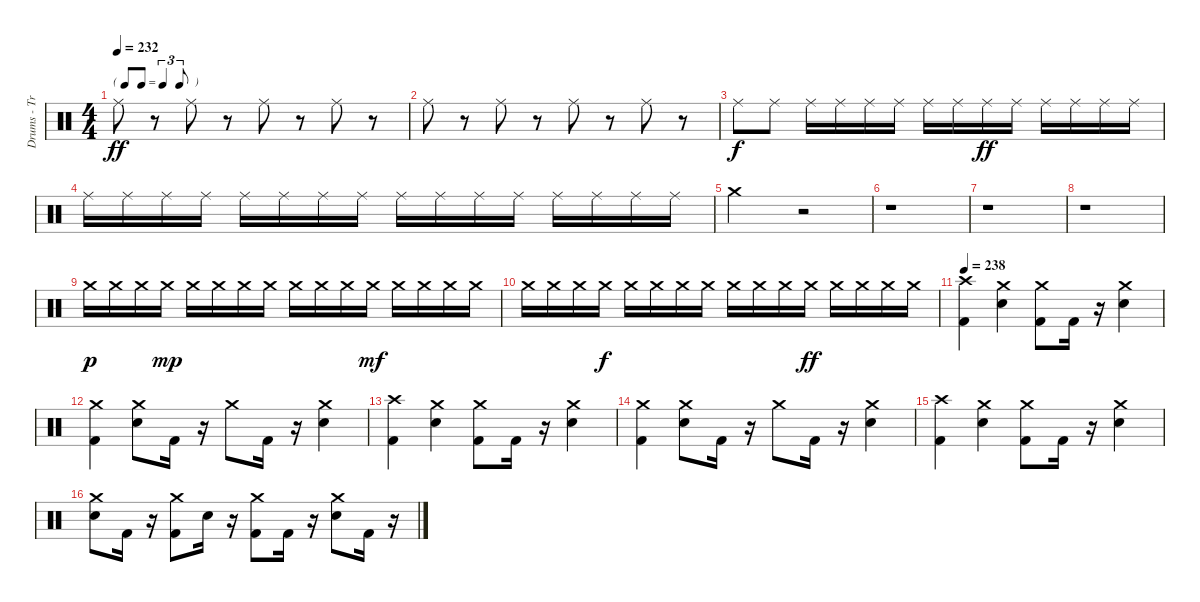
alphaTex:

\track ("Drums - Travis" "Drums - Tr") {instrument percussion}
\staff {score}
\articulation defaults
\ts (4 4)
\tf triplet8th
\tempo 232
\clef neutral
\ks c "Ride (middle)".8{dy ff}
r.8 "Ride (middle)".8 r.8 "Ride (middle)".8 r.8 "Ride (middle)".8 r.8 |
"Ride (middle)".8 r.8 "Ride (middle)".8 r.8 "Ride (middle)".8 r.8 "Ride (middle)".8 r.8 |
"Ride (middle)".8{dy f} "Ride (middle)".8 "Ride (middle)".16 "Ride (middle)".16 "Ride (middle)".16 "Ride (middle)".16 "Ride (middle)".16 "Ride (middle)".16 "Ride (middle)".16{dy ff} "Ride (middle)".16 "Ride (middle)".16 "Ride (middle)".16 "Ride (middle)".16 "Ride (middle)".16 |
"Ride (middle)".16 "Ride (middle)".16 "Ride (middle)".16 "Ride (middle)".16 "Ride (middle)".16 "Ride (middle)".16 "Ride (middle)".16 "Ride (middle)".16 "Ride (middle)".16 "Ride (middle)".16 "Ride (middle)".16 "Ride (middle)".16 "Ride (middle)".16 "Ride (middle)".16 "Ride (middle)".16 "Ride (middle)".16 |
"Crash medium (hit)".2 r.2 |
r.1 |
r.1 |
r.1 |
"Crash medium (hit)".16{dy p} "Crash medium (hit)".16 "Crash medium (hit)".16 "Crash medium (hit)".16{dy mp} "Crash medium (hit)".16 "Crash medium (hit)".16 "Crash medium (hit)".16 "Crash medium (hit)".16 "Crash medium (hit)".16 "Crash medium (hit)".16 "Crash medium (hit)".16 "Crash medium (hit)".16{dy mf} "Crash medium (hit)".16 "Crash medium (hit)".16 "Crash medium (hit)".16 "Crash medium (hit)".16 |
"Crash medium (hit)".16 "Crash medium (hit)".16 "Crash medium (hit)".16 "Crash medium (hit)".16{dy f} "Crash medium (hit)".16 "Crash medium (hit)".16 "Crash medium (hit)".16 "Crash medium (hit)".16 "Crash medium (hit)".16 "Crash medium (hit)".16 "Crash medium (hit)".16 "Crash medium (hit)".16{dy ff} "Crash medium (hit)".16 "Crash medium (hit)".16 "Crash medium (hit)".16 "Crash medium (hit)".16 |
\tempo 238
("Kick (hit) 2" "Crash high (hit)").4 ("Electric Snare (hit)" "Crash medium (hit)").4 ("Kick (hit) 2" "Crash medium (hit)").8 "Kick (hit) 2".16 r.16 ("Electric Snare (hit)" "Crash medium (hit)").4 |
("Kick (hit) 2" "Crash medium (hit)").4 ("Electric Snare (hit)" "Crash medium (hit)").8 "Kick (hit) 2".16 r.16 "Crash medium (hit)".8 "Kick (hit) 2".16 r.16 ("Electric Snare (hit)" "Crash medium (hit)").4 |
("Kick (hit) 2" "Crash high (hit)").4 ("Electric Snare (hit)" "Crash medium (hit)").4 ("Kick (hit) 2" "Crash medium (hit)").8 "Kick (hit) 2".16 r.16 ("Electric Snare (hit)" "Crash medium (hit)").4 |
("Kick (hit) 2" "Crash medium (hit)").4 ("Electric Snare (hit)" "Crash medium (hit)").8 "Kick (hit) 2".16 r.16 "Crash medium (hit)".8 "Kick (hit) 2".16 r.16 ("Electric Snare (hit)" "Crash medium (hit)").4 |
("Kick (hit) 2" "Crash high (hit)").4 ("Electric Snare (hit)" "Crash medium (hit)").4 ("Kick (hit) 2" "Crash medium (hit)").8 "Kick (hit) 2".16 r.16 ("Electric Snare (hit)" "Crash medium (hit)").4 |
("Electric Snare (hit)" "Crash medium (hit)").8 "Kick (hit) 2".16 r.16 ("Kick (hit) 2" "Crash medium (hit)").8 "Electric Snare (hit)".16 r.16 ("Kick (hit) 2" "Crash medium (hit)").8 "Kick (hit) 2".16 r.16 ("Electric Snare (hit)" "Crash medium (hit)").8 "Kick (hit) 2".16 r.16
